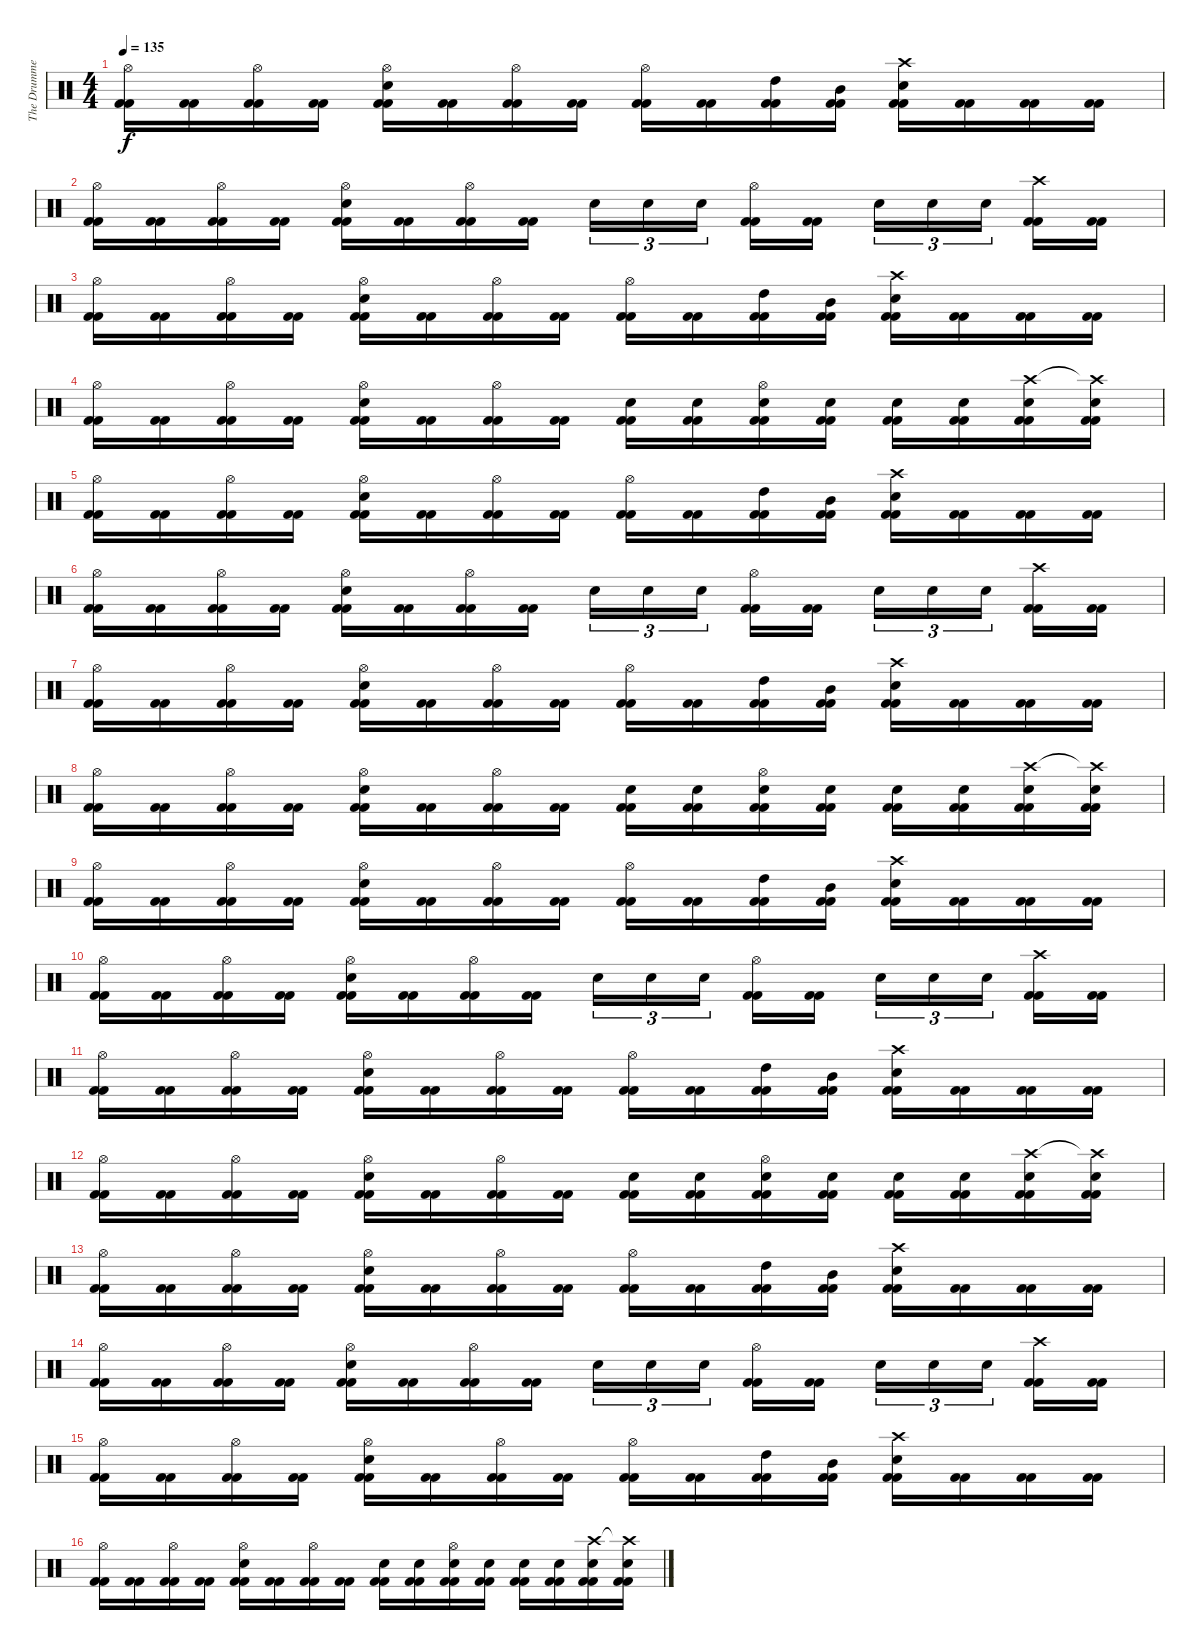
\track ("The Drummer" "The Drumme") {instrument percussion}
\staff {score}
\articulation defaults
\ts (4 4)
\tempo 135
\clef neutral
\ks c
("Hi-Hat (open)" "Kick (hit) 2" "Kick (hit) 2").16{dy f} ("Kick (hit) 2" "Kick (hit) 2").16 ("Hi-Hat (open)" "Kick (hit) 2" "Kick (hit) 2").16 ("Kick (hit) 2" "Kick (hit) 2").16 ("Hi-Hat (open)" "Electric Snare (hit)" "Kick (hit) 2" "Kick (hit) 2").16 ("Kick (hit) 2" "Kick (hit) 2").16 ("Hi-Hat (open)" "Kick (hit) 2" "Kick (hit) 2").16 ("Kick (hit) 2" "Kick (hit) 2").16 ("Hi-Hat (open)" "Kick (hit) 2" "Kick (hit) 2").16 ("Kick (hit) 2" "Kick (hit) 2").16 ("High Tom (hit)" "Kick (hit) 2" "Kick (hit) 2").16 ("Mid Tom (hit)" "Kick (hit) 2" "Kick (hit) 2").16 ("Crash high (hit)" "Electric Snare (hit)" "Kick (hit) 2" "Kick (hit) 2").16 ("Kick (hit) 2" "Kick (hit) 2").16 ("Kick (hit) 2" "Kick (hit) 2").16 ("Kick (hit) 2" "Kick (hit) 2").16 |
("Hi-Hat (open)" "Kick (hit) 2" "Kick (hit) 2").16 ("Kick (hit) 2" "Kick (hit) 2").16 ("Hi-Hat (open)" "Kick (hit) 2" "Kick (hit) 2").16 ("Kick (hit) 2" "Kick (hit) 2").16 ("Hi-Hat (open)" "Electric Snare (hit)" "Kick (hit) 2" "Kick (hit) 2").16 ("Kick (hit) 2" "Kick (hit) 2").16 ("Hi-Hat (open)" "Kick (hit) 2" "Kick (hit) 2").16 ("Kick (hit) 2" "Kick (hit) 2").16 "Electric Snare (hit)".16{tu (3 2)} "Electric Snare (hit)".16{tu (3 2)} "Electric Snare (hit)".16{tu (3 2)} ("Hi-Hat (open)" "Kick (hit) 2" "Kick (hit) 2").16 ("Kick (hit) 2" "Kick (hit) 2").16 "Electric Snare (hit)".16{tu (3 2)} "Electric Snare (hit)".16{tu (3 2)} "Electric Snare (hit)".16{tu (3 2)} ("Crash high (hit)" "Kick (hit) 2" "Kick (hit) 2").16 ("Kick (hit) 2" "Kick (hit) 2").16 |
("Hi-Hat (open)" "Kick (hit) 2" "Kick (hit) 2").16 ("Kick (hit) 2" "Kick (hit) 2").16 ("Hi-Hat (open)" "Kick (hit) 2" "Kick (hit) 2").16 ("Kick (hit) 2" "Kick (hit) 2").16 ("Hi-Hat (open)" "Electric Snare (hit)" "Kick (hit) 2" "Kick (hit) 2").16 ("Kick (hit) 2" "Kick (hit) 2").16 ("Hi-Hat (open)" "Kick (hit) 2" "Kick (hit) 2").16 ("Kick (hit) 2" "Kick (hit) 2").16 ("Hi-Hat (open)" "Kick (hit) 2" "Kick (hit) 2").16 ("Kick (hit) 2" "Kick (hit) 2").16 ("High Tom (hit)" "Kick (hit) 2" "Kick (hit) 2").16 ("Mid Tom (hit)" "Kick (hit) 2" "Kick (hit) 2").16 ("Crash high (hit)" "Electric Snare (hit)" "Kick (hit) 2" "Kick (hit) 2").16 ("Kick (hit) 2" "Kick (hit) 2").16 ("Kick (hit) 2" "Kick (hit) 2").16 ("Kick (hit) 2" "Kick (hit) 2").16 |
("Hi-Hat (open)" "Kick (hit) 2" "Kick (hit) 2").16 ("Kick (hit) 2" "Kick (hit) 2").16 ("Hi-Hat (open)" "Kick (hit) 2" "Kick (hit) 2").16 ("Kick (hit) 2" "Kick (hit) 2").16 ("Hi-Hat (open)" "Electric Snare (hit)" "Kick (hit) 2" "Kick (hit) 2").16 ("Kick (hit) 2" "Kick (hit) 2").16 ("Hi-Hat (open)" "Kick (hit) 2" "Kick (hit) 2").16 ("Kick (hit) 2" "Kick (hit) 2").16 ("Electric Snare (hit)" "Kick (hit) 2" "Kick (hit) 2").16 ("Electric Snare (hit)" "Kick (hit) 2" "Kick (hit) 2").16 ("Hi-Hat (open)" "Electric Snare (hit)" "Kick (hit) 2" "Kick (hit) 2").16 ("Electric Snare (hit)" "Kick (hit) 2" "Kick (hit) 2").16 ("Electric Snare (hit)" "Kick (hit) 2" "Kick (hit) 2").16 ("Electric Snare (hit)" "Kick (hit) 2" "Kick (hit) 2").16 ("Crash high (hit)" "Electric Snare (hit)" "Kick (hit) 2" "Kick (hit) 2").16 ("Crash high (hit)"{t} "Electric Snare (hit)" "Kick (hit) 2" "Kick (hit) 2").16 |
("Hi-Hat (open)" "Kick (hit) 2" "Kick (hit) 2").16 ("Kick (hit) 2" "Kick (hit) 2").16 ("Hi-Hat (open)" "Kick (hit) 2" "Kick (hit) 2").16 ("Kick (hit) 2" "Kick (hit) 2").16 ("Hi-Hat (open)" "Electric Snare (hit)" "Kick (hit) 2" "Kick (hit) 2").16 ("Kick (hit) 2" "Kick (hit) 2").16 ("Hi-Hat (open)" "Kick (hit) 2" "Kick (hit) 2").16 ("Kick (hit) 2" "Kick (hit) 2").16 ("Hi-Hat (open)" "Kick (hit) 2" "Kick (hit) 2").16 ("Kick (hit) 2" "Kick (hit) 2").16 ("High Tom (hit)" "Kick (hit) 2" "Kick (hit) 2").16 ("Mid Tom (hit)" "Kick (hit) 2" "Kick (hit) 2").16 ("Crash high (hit)" "Electric Snare (hit)" "Kick (hit) 2" "Kick (hit) 2").16 ("Kick (hit) 2" "Kick (hit) 2").16 ("Kick (hit) 2" "Kick (hit) 2").16 ("Kick (hit) 2" "Kick (hit) 2").16 |
("Hi-Hat (open)" "Kick (hit) 2" "Kick (hit) 2").16 ("Kick (hit) 2" "Kick (hit) 2").16 ("Hi-Hat (open)" "Kick (hit) 2" "Kick (hit) 2").16 ("Kick (hit) 2" "Kick (hit) 2").16 ("Hi-Hat (open)" "Electric Snare (hit)" "Kick (hit) 2" "Kick (hit) 2").16 ("Kick (hit) 2" "Kick (hit) 2").16 ("Hi-Hat (open)" "Kick (hit) 2" "Kick (hit) 2").16 ("Kick (hit) 2" "Kick (hit) 2").16 "Electric Snare (hit)".16{tu (3 2)} "Electric Snare (hit)".16{tu (3 2)} "Electric Snare (hit)".16{tu (3 2)} ("Hi-Hat (open)" "Kick (hit) 2" "Kick (hit) 2").16 ("Kick (hit) 2" "Kick (hit) 2").16 "Electric Snare (hit)".16{tu (3 2)} "Electric Snare (hit)".16{tu (3 2)} "Electric Snare (hit)".16{tu (3 2)} ("Crash high (hit)" "Kick (hit) 2" "Kick (hit) 2").16 ("Kick (hit) 2" "Kick (hit) 2").16 |
("Hi-Hat (open)" "Kick (hit) 2" "Kick (hit) 2").16 ("Kick (hit) 2" "Kick (hit) 2").16 ("Hi-Hat (open)" "Kick (hit) 2" "Kick (hit) 2").16 ("Kick (hit) 2" "Kick (hit) 2").16 ("Hi-Hat (open)" "Electric Snare (hit)" "Kick (hit) 2" "Kick (hit) 2").16 ("Kick (hit) 2" "Kick (hit) 2").16 ("Hi-Hat (open)" "Kick (hit) 2" "Kick (hit) 2").16 ("Kick (hit) 2" "Kick (hit) 2").16 ("Hi-Hat (open)" "Kick (hit) 2" "Kick (hit) 2").16 ("Kick (hit) 2" "Kick (hit) 2").16 ("High Tom (hit)" "Kick (hit) 2" "Kick (hit) 2").16 ("Mid Tom (hit)" "Kick (hit) 2" "Kick (hit) 2").16 ("Crash high (hit)" "Electric Snare (hit)" "Kick (hit) 2" "Kick (hit) 2").16 ("Kick (hit) 2" "Kick (hit) 2").16 ("Kick (hit) 2" "Kick (hit) 2").16 ("Kick (hit) 2" "Kick (hit) 2").16 |
("Hi-Hat (open)" "Kick (hit) 2" "Kick (hit) 2").16 ("Kick (hit) 2" "Kick (hit) 2").16 ("Hi-Hat (open)" "Kick (hit) 2" "Kick (hit) 2").16 ("Kick (hit) 2" "Kick (hit) 2").16 ("Hi-Hat (open)" "Electric Snare (hit)" "Kick (hit) 2" "Kick (hit) 2").16 ("Kick (hit) 2" "Kick (hit) 2").16 ("Hi-Hat (open)" "Kick (hit) 2" "Kick (hit) 2").16 ("Kick (hit) 2" "Kick (hit) 2").16 ("Electric Snare (hit)" "Kick (hit) 2" "Kick (hit) 2").16 ("Electric Snare (hit)" "Kick (hit) 2" "Kick (hit) 2").16 ("Hi-Hat (open)" "Electric Snare (hit)" "Kick (hit) 2" "Kick (hit) 2").16 ("Electric Snare (hit)" "Kick (hit) 2" "Kick (hit) 2").16 ("Electric Snare (hit)" "Kick (hit) 2" "Kick (hit) 2").16 ("Electric Snare (hit)" "Kick (hit) 2" "Kick (hit) 2").16 ("Crash high (hit)" "Electric Snare (hit)" "Kick (hit) 2" "Kick (hit) 2").16 ("Crash high (hit)"{t} "Electric Snare (hit)" "Kick (hit) 2" "Kick (hit) 2").16 |
("Hi-Hat (open)" "Kick (hit) 2" "Kick (hit) 2").16 ("Kick (hit) 2" "Kick (hit) 2").16 ("Hi-Hat (open)" "Kick (hit) 2" "Kick (hit) 2").16 ("Kick (hit) 2" "Kick (hit) 2").16 ("Hi-Hat (open)" "Electric Snare (hit)" "Kick (hit) 2" "Kick (hit) 2").16 ("Kick (hit) 2" "Kick (hit) 2").16 ("Hi-Hat (open)" "Kick (hit) 2" "Kick (hit) 2").16 ("Kick (hit) 2" "Kick (hit) 2").16 ("Hi-Hat (open)" "Kick (hit) 2" "Kick (hit) 2").16 ("Kick (hit) 2" "Kick (hit) 2").16 ("High Tom (hit)" "Kick (hit) 2" "Kick (hit) 2").16 ("Mid Tom (hit)" "Kick (hit) 2" "Kick (hit) 2").16 ("Crash high (hit)" "Electric Snare (hit)" "Kick (hit) 2" "Kick (hit) 2").16 ("Kick (hit) 2" "Kick (hit) 2").16 ("Kick (hit) 2" "Kick (hit) 2").16 ("Kick (hit) 2" "Kick (hit) 2").16 |
("Hi-Hat (open)" "Kick (hit) 2" "Kick (hit) 2").16 ("Kick (hit) 2" "Kick (hit) 2").16 ("Hi-Hat (open)" "Kick (hit) 2" "Kick (hit) 2").16 ("Kick (hit) 2" "Kick (hit) 2").16 ("Hi-Hat (open)" "Electric Snare (hit)" "Kick (hit) 2" "Kick (hit) 2").16 ("Kick (hit) 2" "Kick (hit) 2").16 ("Hi-Hat (open)" "Kick (hit) 2" "Kick (hit) 2").16 ("Kick (hit) 2" "Kick (hit) 2").16 "Electric Snare (hit)".16{tu (3 2)} "Electric Snare (hit)".16{tu (3 2)} "Electric Snare (hit)".16{tu (3 2)} ("Hi-Hat (open)" "Kick (hit) 2" "Kick (hit) 2").16 ("Kick (hit) 2" "Kick (hit) 2").16 "Electric Snare (hit)".16{tu (3 2)} "Electric Snare (hit)".16{tu (3 2)} "Electric Snare (hit)".16{tu (3 2)} ("Crash high (hit)" "Kick (hit) 2" "Kick (hit) 2").16 ("Kick (hit) 2" "Kick (hit) 2").16 |
("Hi-Hat (open)" "Kick (hit) 2" "Kick (hit) 2").16 ("Kick (hit) 2" "Kick (hit) 2").16 ("Hi-Hat (open)" "Kick (hit) 2" "Kick (hit) 2").16 ("Kick (hit) 2" "Kick (hit) 2").16 ("Hi-Hat (open)" "Electric Snare (hit)" "Kick (hit) 2" "Kick (hit) 2").16 ("Kick (hit) 2" "Kick (hit) 2").16 ("Hi-Hat (open)" "Kick (hit) 2" "Kick (hit) 2").16 ("Kick (hit) 2" "Kick (hit) 2").16 ("Hi-Hat (open)" "Kick (hit) 2" "Kick (hit) 2").16 ("Kick (hit) 2" "Kick (hit) 2").16 ("High Tom (hit)" "Kick (hit) 2" "Kick (hit) 2").16 ("Mid Tom (hit)" "Kick (hit) 2" "Kick (hit) 2").16 ("Crash high (hit)" "Electric Snare (hit)" "Kick (hit) 2" "Kick (hit) 2").16 ("Kick (hit) 2" "Kick (hit) 2").16 ("Kick (hit) 2" "Kick (hit) 2").16 ("Kick (hit) 2" "Kick (hit) 2").16 |
("Hi-Hat (open)" "Kick (hit) 2" "Kick (hit) 2").16 ("Kick (hit) 2" "Kick (hit) 2").16 ("Hi-Hat (open)" "Kick (hit) 2" "Kick (hit) 2").16 ("Kick (hit) 2" "Kick (hit) 2").16 ("Hi-Hat (open)" "Electric Snare (hit)" "Kick (hit) 2" "Kick (hit) 2").16 ("Kick (hit) 2" "Kick (hit) 2").16 ("Hi-Hat (open)" "Kick (hit) 2" "Kick (hit) 2").16 ("Kick (hit) 2" "Kick (hit) 2").16 ("Electric Snare (hit)" "Kick (hit) 2" "Kick (hit) 2").16 ("Electric Snare (hit)" "Kick (hit) 2" "Kick (hit) 2").16 ("Hi-Hat (open)" "Electric Snare (hit)" "Kick (hit) 2" "Kick (hit) 2").16 ("Electric Snare (hit)" "Kick (hit) 2" "Kick (hit) 2").16 ("Electric Snare (hit)" "Kick (hit) 2" "Kick (hit) 2").16 ("Electric Snare (hit)" "Kick (hit) 2" "Kick (hit) 2").16 ("Crash high (hit)" "Electric Snare (hit)" "Kick (hit) 2" "Kick (hit) 2").16 ("Crash high (hit)"{t} "Electric Snare (hit)" "Kick (hit) 2" "Kick (hit) 2").16 |
("Hi-Hat (open)" "Kick (hit) 2" "Kick (hit) 2").16 ("Kick (hit) 2" "Kick (hit) 2").16 ("Hi-Hat (open)" "Kick (hit) 2" "Kick (hit) 2").16 ("Kick (hit) 2" "Kick (hit) 2").16 ("Hi-Hat (open)" "Electric Snare (hit)" "Kick (hit) 2" "Kick (hit) 2").16 ("Kick (hit) 2" "Kick (hit) 2").16 ("Hi-Hat (open)" "Kick (hit) 2" "Kick (hit) 2").16 ("Kick (hit) 2" "Kick (hit) 2").16 ("Hi-Hat (open)" "Kick (hit) 2" "Kick (hit) 2").16 ("Kick (hit) 2" "Kick (hit) 2").16 ("High Tom (hit)" "Kick (hit) 2" "Kick (hit) 2").16 ("Mid Tom (hit)" "Kick (hit) 2" "Kick (hit) 2").16 ("Crash high (hit)" "Electric Snare (hit)" "Kick (hit) 2" "Kick (hit) 2").16 ("Kick (hit) 2" "Kick (hit) 2").16 ("Kick (hit) 2" "Kick (hit) 2").16 ("Kick (hit) 2" "Kick (hit) 2").16 |
("Hi-Hat (open)" "Kick (hit) 2" "Kick (hit) 2").16 ("Kick (hit) 2" "Kick (hit) 2").16 ("Hi-Hat (open)" "Kick (hit) 2" "Kick (hit) 2").16 ("Kick (hit) 2" "Kick (hit) 2").16 ("Hi-Hat (open)" "Electric Snare (hit)" "Kick (hit) 2" "Kick (hit) 2").16 ("Kick (hit) 2" "Kick (hit) 2").16 ("Hi-Hat (open)" "Kick (hit) 2" "Kick (hit) 2").16 ("Kick (hit) 2" "Kick (hit) 2").16 "Electric Snare (hit)".16{tu (3 2)} "Electric Snare (hit)".16{tu (3 2)} "Electric Snare (hit)".16{tu (3 2)} ("Hi-Hat (open)" "Kick (hit) 2" "Kick (hit) 2").16 ("Kick (hit) 2" "Kick (hit) 2").16 "Electric Snare (hit)".16{tu (3 2)} "Electric Snare (hit)".16{tu (3 2)} "Electric Snare (hit)".16{tu (3 2)} ("Crash high (hit)" "Kick (hit) 2" "Kick (hit) 2").16 ("Kick (hit) 2" "Kick (hit) 2").16 |
("Hi-Hat (open)" "Kick (hit) 2" "Kick (hit) 2").16 ("Kick (hit) 2" "Kick (hit) 2").16 ("Hi-Hat (open)" "Kick (hit) 2" "Kick (hit) 2").16 ("Kick (hit) 2" "Kick (hit) 2").16 ("Hi-Hat (open)" "Electric Snare (hit)" "Kick (hit) 2" "Kick (hit) 2").16 ("Kick (hit) 2" "Kick (hit) 2").16 ("Hi-Hat (open)" "Kick (hit) 2" "Kick (hit) 2").16 ("Kick (hit) 2" "Kick (hit) 2").16 ("Hi-Hat (open)" "Kick (hit) 2" "Kick (hit) 2").16 ("Kick (hit) 2" "Kick (hit) 2").16 ("High Tom (hit)" "Kick (hit) 2" "Kick (hit) 2").16 ("Mid Tom (hit)" "Kick (hit) 2" "Kick (hit) 2").16 ("Crash high (hit)" "Electric Snare (hit)" "Kick (hit) 2" "Kick (hit) 2").16 ("Kick (hit) 2" "Kick (hit) 2").16 ("Kick (hit) 2" "Kick (hit) 2").16 ("Kick (hit) 2" "Kick (hit) 2").16 |
("Hi-Hat (open)" "Kick (hit) 2" "Kick (hit) 2").16 ("Kick (hit) 2" "Kick (hit) 2").16 ("Hi-Hat (open)" "Kick (hit) 2" "Kick (hit) 2").16 ("Kick (hit) 2" "Kick (hit) 2").16 ("Hi-Hat (open)" "Electric Snare (hit)" "Kick (hit) 2" "Kick (hit) 2").16 ("Kick (hit) 2" "Kick (hit) 2").16 ("Hi-Hat (open)" "Kick (hit) 2" "Kick (hit) 2").16 ("Kick (hit) 2" "Kick (hit) 2").16 ("Electric Snare (hit)" "Kick (hit) 2" "Kick (hit) 2").16 ("Electric Snare (hit)" "Kick (hit) 2" "Kick (hit) 2").16 ("Hi-Hat (open)" "Electric Snare (hit)" "Kick (hit) 2" "Kick (hit) 2").16 ("Electric Snare (hit)" "Kick (hit) 2" "Kick (hit) 2").16 ("Electric Snare (hit)" "Kick (hit) 2" "Kick (hit) 2").16 ("Electric Snare (hit)" "Kick (hit) 2" "Kick (hit) 2").16 ("Crash high (hit)" "Electric Snare (hit)" "Kick (hit) 2" "Kick (hit) 2").16 ("Crash high (hit)"{t} "Electric Snare (hit)" "Kick (hit) 2" "Kick (hit) 2").16
